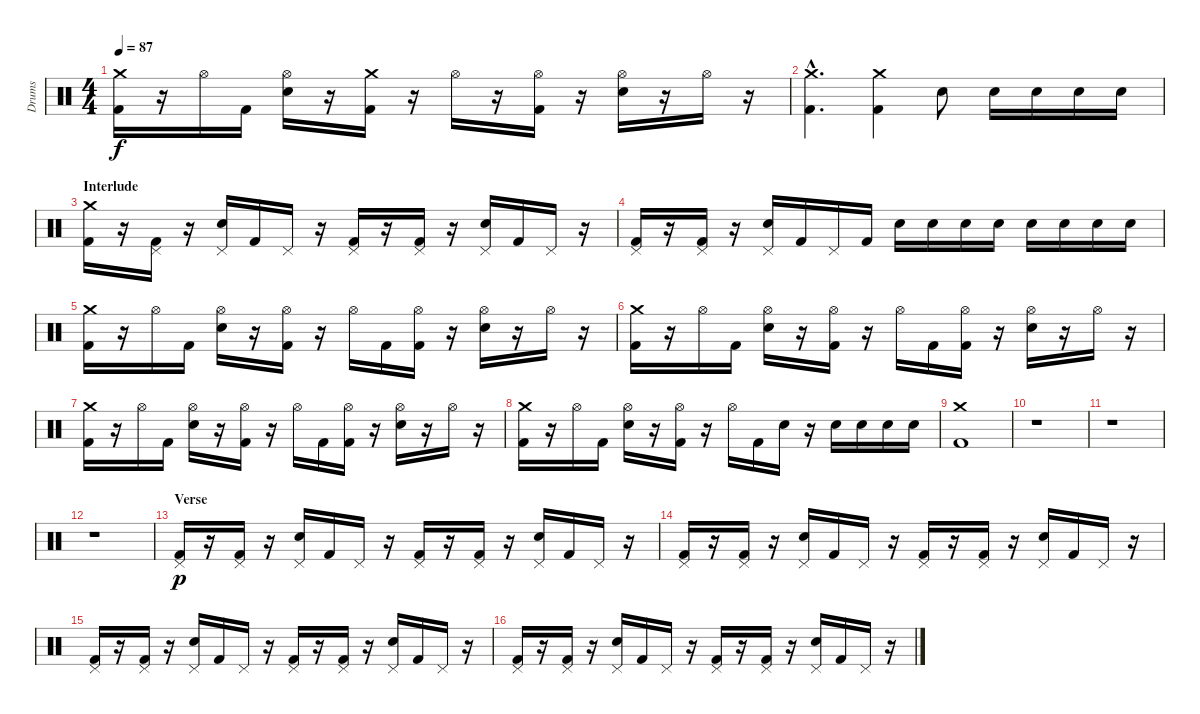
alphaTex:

\track ("Drums" "Drums") {instrument percussion}
\staff {score}
\articulation defaults
\ts (4 4)
\tempo 87
\clef neutral
\ks c
("Crash medium (hit)" "Kick (hit) 2").16{dy f} r.16 "Hi-Hat (open)".16 "Kick (hit) 2".16 ("Hi-Hat (open)" "Electric Snare (hit)").16 r.16 ("Crash medium (hit)" "Kick (hit) 2").16 r.16 "Hi-Hat (open)".16 r.16 ("Hi-Hat (open)" "Kick (hit) 2").16 r.16 ("Hi-Hat (open)" "Electric Snare (hit)").16 r.16 "Hi-Hat (open)".16 r.16 |
("Kick (hit) 2"{hac} "Crash medium (hit)"{hac}).4{d} ("Kick (hit) 2" "Crash medium (hit)").4 "Electric Snare (hit)".8 "Electric Snare (hit)".16 "Electric Snare (hit)".16 "Electric Snare (hit)".16 "Electric Snare (hit)".16 |
\section ("" "Interlude")
("Crash medium (hit)" "Kick (hit) 2").16 r.16 ("Pedal Hi-Hat (hit)" "Kick (hit) 2").16 r.16 ("Pedal Hi-Hat (hit)" "Electric Snare (hit)").16 "Kick (hit) 2".16 "Pedal Hi-Hat (hit)".16 r.16 ("Pedal Hi-Hat (hit)" "Kick (hit) 2").16 r.16 ("Pedal Hi-Hat (hit)" "Kick (hit) 2").16 r.16 ("Pedal Hi-Hat (hit)" "Electric Snare (hit)").16 "Kick (hit) 2".16 "Pedal Hi-Hat (hit)".16 r.16 |
("Pedal Hi-Hat (hit)" "Kick (hit) 2").16 r.16 ("Pedal Hi-Hat (hit)" "Kick (hit) 2").16 r.16 ("Pedal Hi-Hat (hit)" "Electric Snare (hit)").16 "Kick (hit) 2".16 "Pedal Hi-Hat (hit)".16 "Kick (hit) 2".16 "Electric Snare (hit)".16 "Electric Snare (hit)".16 "Electric Snare (hit)".16 "Electric Snare (hit)".16 "Electric Snare (hit)".16 "Electric Snare (hit)".16 "Electric Snare (hit)".16 "Electric Snare (hit)".16 |
("Crash medium (hit)" "Kick (hit) 2").16 r.16 "Hi-Hat (open)".16 "Kick (hit) 2".16 ("Hi-Hat (open)" "Electric Snare (hit)").16 r.16 ("Hi-Hat (open)" "Kick (hit) 2").16 r.16 "Hi-Hat (open)".16 "Kick (hit) 2".16 ("Hi-Hat (open)" "Kick (hit) 2").16 r.16 ("Hi-Hat (open)" "Electric Snare (hit)").16 r.16 "Hi-Hat (open)".16 r.16 |
("Crash medium (hit)" "Kick (hit) 2").16 r.16 "Hi-Hat (open)".16 "Kick (hit) 2".16 ("Hi-Hat (open)" "Electric Snare (hit)").16 r.16 ("Hi-Hat (open)" "Kick (hit) 2").16 r.16 "Hi-Hat (open)".16 "Kick (hit) 2".16 ("Hi-Hat (open)" "Kick (hit) 2").16 r.16 ("Hi-Hat (open)" "Electric Snare (hit)").16 r.16 "Hi-Hat (open)".16 r.16 |
("Crash medium (hit)" "Kick (hit) 2").16 r.16 "Hi-Hat (open)".16 "Kick (hit) 2".16 ("Hi-Hat (open)" "Electric Snare (hit)").16 r.16 ("Hi-Hat (open)" "Kick (hit) 2").16 r.16 "Hi-Hat (open)".16 "Kick (hit) 2".16 ("Hi-Hat (open)" "Kick (hit) 2").16 r.16 ("Hi-Hat (open)" "Electric Snare (hit)").16 r.16 "Hi-Hat (open)".16 r.16 |
("Crash medium (hit)" "Kick (hit) 2").16 r.16 "Hi-Hat (open)".16 "Kick (hit) 2".16 ("Hi-Hat (open)" "Electric Snare (hit)").16 r.16 ("Hi-Hat (open)" "Kick (hit) 2").16 r.16 "Hi-Hat (open)".16 "Kick (hit) 2".16 "Electric Snare (hit)".16 r.16 "Electric Snare (hit)".16 "Electric Snare (hit)".16 "Electric Snare (hit)".16 "Electric Snare (hit)".16 |
("Kick (hit) 2" "Crash medium (hit)").1 |
r.1 |
r.1 |
r.1 |
\section ("" "Verse")
("Pedal Hi-Hat (hit)" "Kick (hit) 2").16{dy p} r.16 ("Pedal Hi-Hat (hit)" "Kick (hit) 2").16 r.16 ("Pedal Hi-Hat (hit)" "Electric Snare (hit)").16 "Kick (hit) 2".16 "Pedal Hi-Hat (hit)".16 r.16 ("Pedal Hi-Hat (hit)" "Kick (hit) 2").16 r.16 ("Pedal Hi-Hat (hit)" "Kick (hit) 2").16 r.16 ("Pedal Hi-Hat (hit)" "Electric Snare (hit)").16 "Kick (hit) 2".16 "Pedal Hi-Hat (hit)".16 r.16 |
("Pedal Hi-Hat (hit)" "Kick (hit) 2").16 r.16 ("Pedal Hi-Hat (hit)" "Kick (hit) 2").16 r.16 ("Pedal Hi-Hat (hit)" "Electric Snare (hit)").16 "Kick (hit) 2".16 "Pedal Hi-Hat (hit)".16 r.16 ("Pedal Hi-Hat (hit)" "Kick (hit) 2").16 r.16 ("Pedal Hi-Hat (hit)" "Kick (hit) 2").16 r.16 ("Pedal Hi-Hat (hit)" "Electric Snare (hit)").16 "Kick (hit) 2".16 "Pedal Hi-Hat (hit)".16 r.16 |
("Pedal Hi-Hat (hit)" "Kick (hit) 2").16 r.16 ("Pedal Hi-Hat (hit)" "Kick (hit) 2").16 r.16 ("Pedal Hi-Hat (hit)" "Electric Snare (hit)").16 "Kick (hit) 2".16 "Pedal Hi-Hat (hit)".16 r.16 ("Pedal Hi-Hat (hit)" "Kick (hit) 2").16 r.16 ("Pedal Hi-Hat (hit)" "Kick (hit) 2").16 r.16 ("Pedal Hi-Hat (hit)" "Electric Snare (hit)").16 "Kick (hit) 2".16 "Pedal Hi-Hat (hit)".16 r.16 |
("Pedal Hi-Hat (hit)" "Kick (hit) 2").16 r.16 ("Pedal Hi-Hat (hit)" "Kick (hit) 2").16 r.16 ("Pedal Hi-Hat (hit)" "Electric Snare (hit)").16 "Kick (hit) 2".16 "Pedal Hi-Hat (hit)".16 r.16 ("Pedal Hi-Hat (hit)" "Kick (hit) 2").16 r.16 ("Pedal Hi-Hat (hit)" "Kick (hit) 2").16 r.16 ("Pedal Hi-Hat (hit)" "Electric Snare (hit)").16 "Kick (hit) 2".16 "Pedal Hi-Hat (hit)".16 r.16
